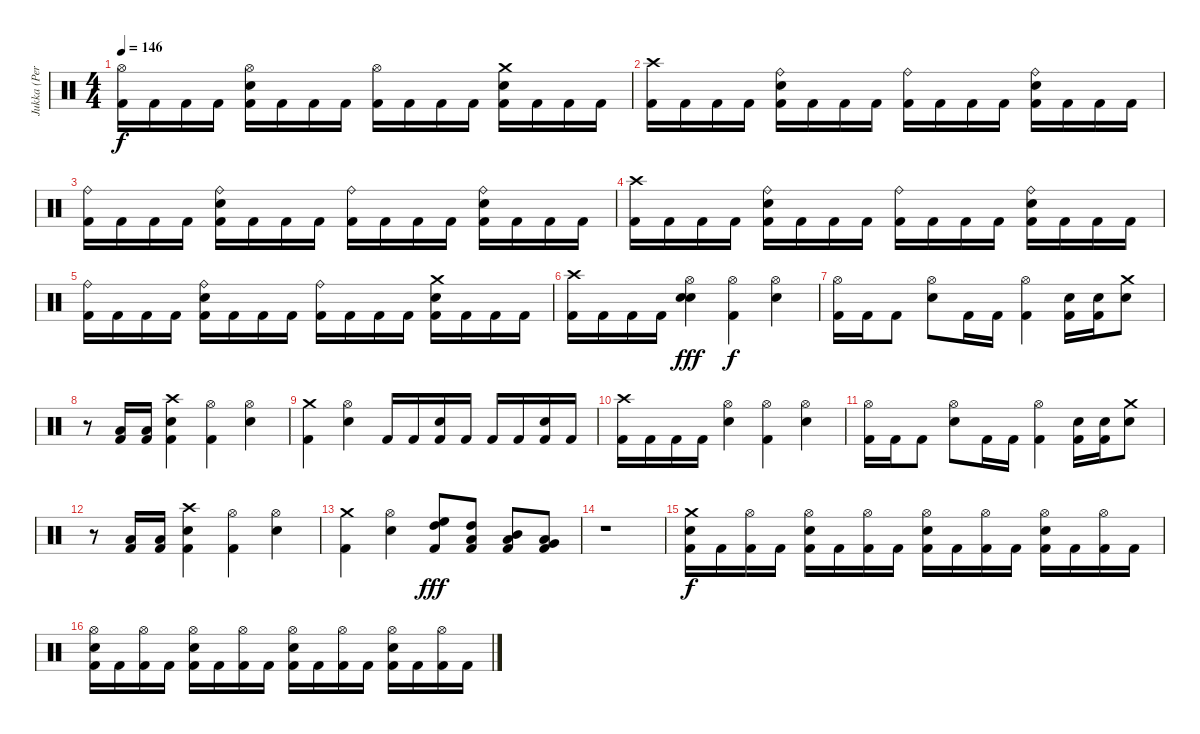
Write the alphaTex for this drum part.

\track ("Jukka (Percussion)" "Jukka (Per") {instrument percussion}
\staff {score}
\articulation defaults
\ts (4 4)
\tempo 146
\clef neutral
\ks c
("Hi-Hat (open)" "Kick (hit) 2").16{dy f} "Kick (hit) 2".16 "Kick (hit) 2".16 "Kick (hit) 2".16 ("Hi-Hat (open)" "Snare (hit) 2" "Kick (hit) 2").16 "Kick (hit) 2".16 "Kick (hit) 2".16 "Kick (hit) 2".16 ("Hi-Hat (open)" "Kick (hit) 2").16 "Kick (hit) 2".16 "Kick (hit) 2".16 "Kick (hit) 2".16 ("Crash medium (hit)" "Snare (hit) 2" "Kick (hit) 2").16 "Kick (hit) 2".16 "Kick (hit) 2".16 "Kick (hit) 2".16 |
("Crash high (hit)" "Kick (hit) 2").16 "Kick (hit) 2".16 "Kick (hit) 2".16 "Kick (hit) 2".16 ("Ride (bell)" "Snare (hit) 2" "Kick (hit) 2").16 "Kick (hit) 2".16 "Kick (hit) 2".16 "Kick (hit) 2".16 ("Ride (bell)" "Kick (hit) 2").16 "Kick (hit) 2".16 "Kick (hit) 2".16 "Kick (hit) 2".16 ("Ride (bell)" "Snare (hit) 2" "Kick (hit) 2").16 "Kick (hit) 2".16 "Kick (hit) 2".16 "Kick (hit) 2".16 |
("Ride (bell)" "Kick (hit) 2").16 "Kick (hit) 2".16 "Kick (hit) 2".16 "Kick (hit) 2".16 ("Ride (bell)" "Snare (hit) 2" "Kick (hit) 2").16 "Kick (hit) 2".16 "Kick (hit) 2".16 "Kick (hit) 2".16 ("Ride (bell)" "Kick (hit) 2").16 "Kick (hit) 2".16 "Kick (hit) 2".16 "Kick (hit) 2".16 ("Ride (bell)" "Snare (hit) 2" "Kick (hit) 2").16 "Kick (hit) 2".16 "Kick (hit) 2".16 "Kick (hit) 2".16 |
("Crash high (hit)" "Kick (hit) 2").16 "Kick (hit) 2".16 "Kick (hit) 2".16 "Kick (hit) 2".16 ("Ride (bell)" "Snare (hit) 2" "Kick (hit) 2").16 "Kick (hit) 2".16 "Kick (hit) 2".16 "Kick (hit) 2".16 ("Ride (bell)" "Kick (hit) 2").16 "Kick (hit) 2".16 "Kick (hit) 2".16 "Kick (hit) 2".16 ("Ride (bell)" "Snare (hit) 2" "Kick (hit) 2").16 "Kick (hit) 2".16 "Kick (hit) 2".16 "Kick (hit) 2".16 |
("Ride (bell)" "Kick (hit) 2").16 "Kick (hit) 2".16 "Kick (hit) 2".16 "Kick (hit) 2".16 ("Ride (bell)" "Snare (hit) 2" "Kick (hit) 2").16 "Kick (hit) 2".16 "Kick (hit) 2".16 "Kick (hit) 2".16 ("Ride (bell)" "Kick (hit) 2").16 "Kick (hit) 2".16 "Kick (hit) 2".16 "Kick (hit) 2".16 ("Crash medium (hit)" "Snare (hit) 2" "Kick (hit) 2").16 "Kick (hit) 2".16 "Kick (hit) 2".16 "Kick (hit) 2".16 |
("Crash high (hit)" "Kick (hit) 2").16 "Kick (hit) 2".16 "Kick (hit) 2".16 "Kick (hit) 2".16 ("Hi-Hat (open)" "Electric Snare (hit)" "Snare (hit) 2").4{dy fff} ("Hi-Hat (open)" "Kick (hit) 2").4{dy f} ("Hi-Hat (open)" "Snare (hit) 2").4 |
("Hi-Hat (open)" "Kick (hit) 2").16 "Kick (hit) 2".16 "Kick (hit) 2".8 ("Hi-Hat (open)" "Snare (hit) 2").8 "Kick (hit) 2".16 "Kick (hit) 2".16 ("Hi-Hat (open)" "Kick (hit) 2").4 ("Snare (hit) 2" "Kick (hit) 2").16 ("Snare (hit) 2" "Kick (hit) 2").16 ("Crash medium (hit)" "Snare (hit) 2").8 |
r.8 ("Low Tom (hit)" "Kick (hit) 2").16 ("Low Tom (hit)" "Kick (hit) 2").16 ("Crash high (hit)" "Snare (hit) 2" "Kick (hit) 2").4 ("Hi-Hat (open)" "Kick (hit) 2").4 ("Hi-Hat (open)" "Snare (hit) 2").4 |
("Crash medium (hit)" "Kick (hit) 2").4 ("Hi-Hat (open)" "Snare (hit) 2").4 "Kick (hit) 2".16 "Kick (hit) 2".16 ("Snare (hit) 2" "Kick (hit) 2").16 "Kick (hit) 2".16 "Kick (hit) 2".16 "Kick (hit) 2".16 ("Snare (hit) 2" "Kick (hit) 2").16 "Kick (hit) 2".16 |
("Crash high (hit)" "Kick (hit) 2").16 "Kick (hit) 2".16 "Kick (hit) 2".16 "Kick (hit) 2".16 ("Hi-Hat (open)" "Snare (hit) 2").4 ("Hi-Hat (open)" "Kick (hit) 2").4 ("Hi-Hat (open)" "Snare (hit) 2").4 |
("Hi-Hat (open)" "Kick (hit) 2").16 "Kick (hit) 2".16 "Kick (hit) 2".8 ("Hi-Hat (open)" "Snare (hit) 2").8 "Kick (hit) 2".16 "Kick (hit) 2".16 ("Hi-Hat (open)" "Kick (hit) 2").4 ("Snare (hit) 2" "Kick (hit) 2").16 ("Snare (hit) 2" "Kick (hit) 2").16 ("Crash medium (hit)" "Snare (hit) 2").8 |
r.8 ("Low Tom (hit)" "Kick (hit) 2").16 ("Low Tom (hit)" "Kick (hit) 2").16 ("Crash high (hit)" "Snare (hit) 2" "Kick (hit) 2").4 ("Hi-Hat (open)" "Kick (hit) 2").4 ("Hi-Hat (open)" "Snare (hit) 2").4 |
("Crash medium (hit)" "Kick (hit) 2").4 ("Hi-Hat (open)" "Snare (hit) 2").4 ("High Floor Tom (hit)" "High Tom (hit)" "Kick (hit) 2").8{dy fff} ("High Tom (hit)" "Low Tom (hit)" "Kick (hit) 2").8 ("Mid Tom (hit)" "Low Tom (hit)" "Kick (hit) 2").8 ("Very Low Tom (hit)" "Low Floor Tom (hit)" "Kick (hit) 2").8 |
r.1 |
("Crash medium (hit)" "Snare (hit) 2" "Kick (hit) 2").16{dy f} "Kick (hit) 2".16 ("Hi-Hat (open)" "Kick (hit) 2").16 "Kick (hit) 2".16 ("Hi-Hat (open)" "Snare (hit) 2" "Kick (hit) 2").16 "Kick (hit) 2".16 ("Hi-Hat (open)" "Kick (hit) 2").16 "Kick (hit) 2".16 ("Hi-Hat (open)" "Snare (hit) 2" "Kick (hit) 2").16 "Kick (hit) 2".16 ("Hi-Hat (open)" "Kick (hit) 2").16 "Kick (hit) 2".16 ("Hi-Hat (open)" "Snare (hit) 2" "Kick (hit) 2").16 "Kick (hit) 2".16 ("Hi-Hat (open)" "Kick (hit) 2").16 "Kick (hit) 2".16 |
("Hi-Hat (open)" "Snare (hit) 2" "Kick (hit) 2").16 "Kick (hit) 2".16 ("Hi-Hat (open)" "Kick (hit) 2").16 "Kick (hit) 2".16 ("Hi-Hat (open)" "Snare (hit) 2" "Kick (hit) 2").16 "Kick (hit) 2".16 ("Hi-Hat (open)" "Kick (hit) 2").16 "Kick (hit) 2".16 ("Hi-Hat (open)" "Snare (hit) 2" "Kick (hit) 2").16 "Kick (hit) 2".16 ("Hi-Hat (open)" "Kick (hit) 2").16 "Kick (hit) 2".16 ("Hi-Hat (open)" "Snare (hit) 2" "Kick (hit) 2").16 "Kick (hit) 2".16 ("Hi-Hat (open)" "Kick (hit) 2").16 "Kick (hit) 2".16
